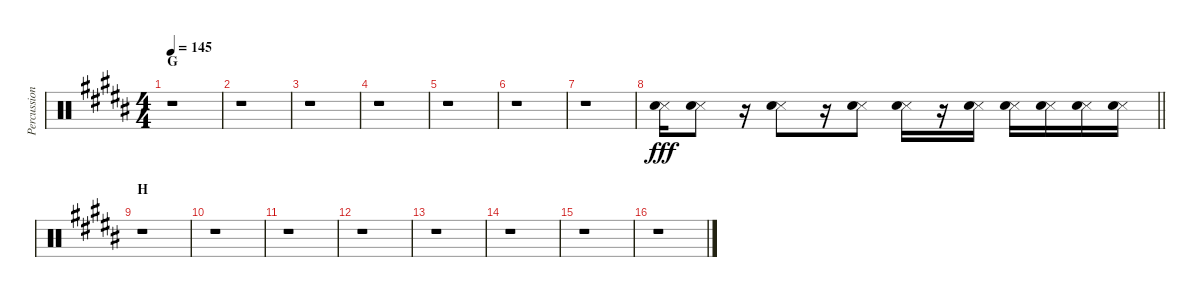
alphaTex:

\track ("Percussion" "Percussion") {instrument percussion}
\staff {score}
\articulation defaults
\ts (4 4)
\section ("" "G")
\tempo 145
\clef neutral
\ks b
r.1{dy fff} |
r.1 |
r.1 |
r.1 |
r.1 |
r.1 |
r.1 |
\barLineRight lightlight
("Snare (side stick) 3" "Hand Clap (hit)").16 ("Snare (side stick) 3" "Hand Clap (hit)").8 r.16 ("Snare (side stick) 3" "Hand Clap (hit)").8 r.16 ("Snare (side stick) 3" "Hand Clap (hit)").8 ("Snare (side stick) 3" "Hand Clap (hit)").16 r.16 ("Snare (side stick) 3" "Hand Clap (hit)").16 ("Snare (side stick) 3" "Hand Clap (hit)").16 ("Snare (side stick) 3" "Hand Clap (hit)").16 ("Snare (side stick) 3" "Hand Clap (hit)").16 ("Snare (side stick) 3" "Hand Clap (hit)").16 |
\section ("" "H")
r.1 |
r.1 |
r.1 |
r.1 |
r.1 |
r.1 |
r.1 |
r.1
